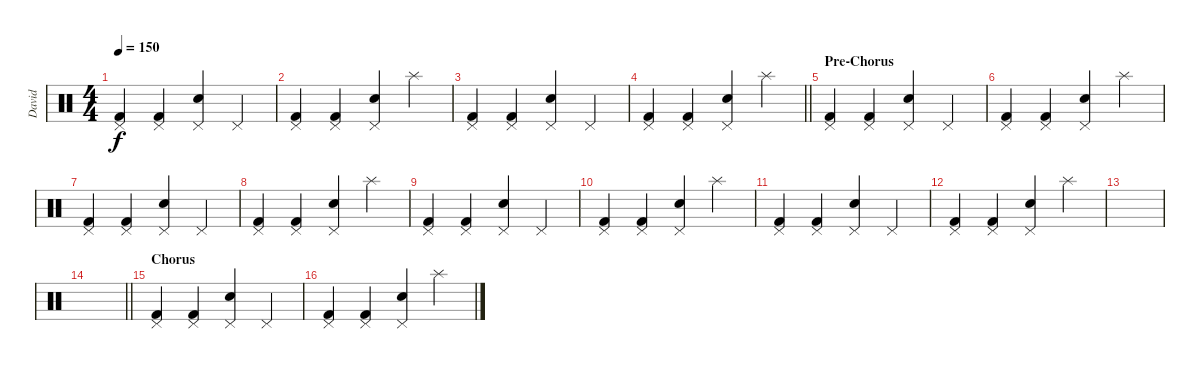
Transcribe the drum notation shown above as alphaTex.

\track ("David" "David") {instrument percussion}
\staff {score}
\articulation defaults
\ts (4 4)
\tempo 150
\clef neutral
\ks c
("Pedal Hi-Hat (hit)" "Kick (hit) 2").4{dy f} ("Pedal Hi-Hat (hit)" "Kick (hit) 2").4 ("Pedal Hi-Hat (hit)" "Hand Clap (hit)").4 "Pedal Hi-Hat (hit)".4 |
("Pedal Hi-Hat (hit)" "Kick (hit) 2").4 ("Pedal Hi-Hat (hit)" "Kick (hit) 2").4 ("Pedal Hi-Hat (hit)" "Hand Clap (hit)").4 "Splash (hit)".4 |
("Pedal Hi-Hat (hit)" "Kick (hit) 2").4 ("Pedal Hi-Hat (hit)" "Kick (hit) 2").4 ("Pedal Hi-Hat (hit)" "Hand Clap (hit)").4 "Pedal Hi-Hat (hit)".4 |
\barLineRight lightlight
("Pedal Hi-Hat (hit)" "Kick (hit) 2").4 ("Pedal Hi-Hat (hit)" "Kick (hit) 2").4 ("Pedal Hi-Hat (hit)" "Hand Clap (hit)").4 "Splash (hit)".4 |
\section ("" "Pre-Chorus")
("Pedal Hi-Hat (hit)" "Kick (hit) 2").4 ("Pedal Hi-Hat (hit)" "Kick (hit) 2").4 ("Pedal Hi-Hat (hit)" "Hand Clap (hit)").4 "Pedal Hi-Hat (hit)".4 |
("Pedal Hi-Hat (hit)" "Kick (hit) 2").4 ("Pedal Hi-Hat (hit)" "Kick (hit) 2").4 ("Pedal Hi-Hat (hit)" "Hand Clap (hit)").4 "Splash (hit)".4 |
("Pedal Hi-Hat (hit)" "Kick (hit) 2").4 ("Pedal Hi-Hat (hit)" "Kick (hit) 2").4 ("Pedal Hi-Hat (hit)" "Hand Clap (hit)").4 "Pedal Hi-Hat (hit)".4 |
("Pedal Hi-Hat (hit)" "Kick (hit) 2").4 ("Pedal Hi-Hat (hit)" "Kick (hit) 2").4 ("Pedal Hi-Hat (hit)" "Hand Clap (hit)").4 "Splash (hit)".4 |
("Pedal Hi-Hat (hit)" "Kick (hit) 2").4 ("Pedal Hi-Hat (hit)" "Kick (hit) 2").4 ("Pedal Hi-Hat (hit)" "Hand Clap (hit)").4 "Pedal Hi-Hat (hit)".4 |
("Pedal Hi-Hat (hit)" "Kick (hit) 2").4 ("Pedal Hi-Hat (hit)" "Kick (hit) 2").4 ("Pedal Hi-Hat (hit)" "Hand Clap (hit)").4 "Splash (hit)".4 |
("Pedal Hi-Hat (hit)" "Kick (hit) 2").4 ("Pedal Hi-Hat (hit)" "Kick (hit) 2").4 ("Pedal Hi-Hat (hit)" "Hand Clap (hit)").4 "Pedal Hi-Hat (hit)".4 |
("Pedal Hi-Hat (hit)" "Kick (hit) 2").4 ("Pedal Hi-Hat (hit)" "Kick (hit) 2").4 ("Pedal Hi-Hat (hit)" "Hand Clap (hit)").4 "Splash (hit)".4 |
|
\barLineRight lightlight
|
\section ("" "Chorus")
("Pedal Hi-Hat (hit)" "Kick (hit) 2").4 ("Pedal Hi-Hat (hit)" "Kick (hit) 2").4 ("Pedal Hi-Hat (hit)" "Hand Clap (hit)").4 "Pedal Hi-Hat (hit)".4 |
("Pedal Hi-Hat (hit)" "Kick (hit) 2").4 ("Pedal Hi-Hat (hit)" "Kick (hit) 2").4 ("Pedal Hi-Hat (hit)" "Hand Clap (hit)").4 "Splash (hit)".4
